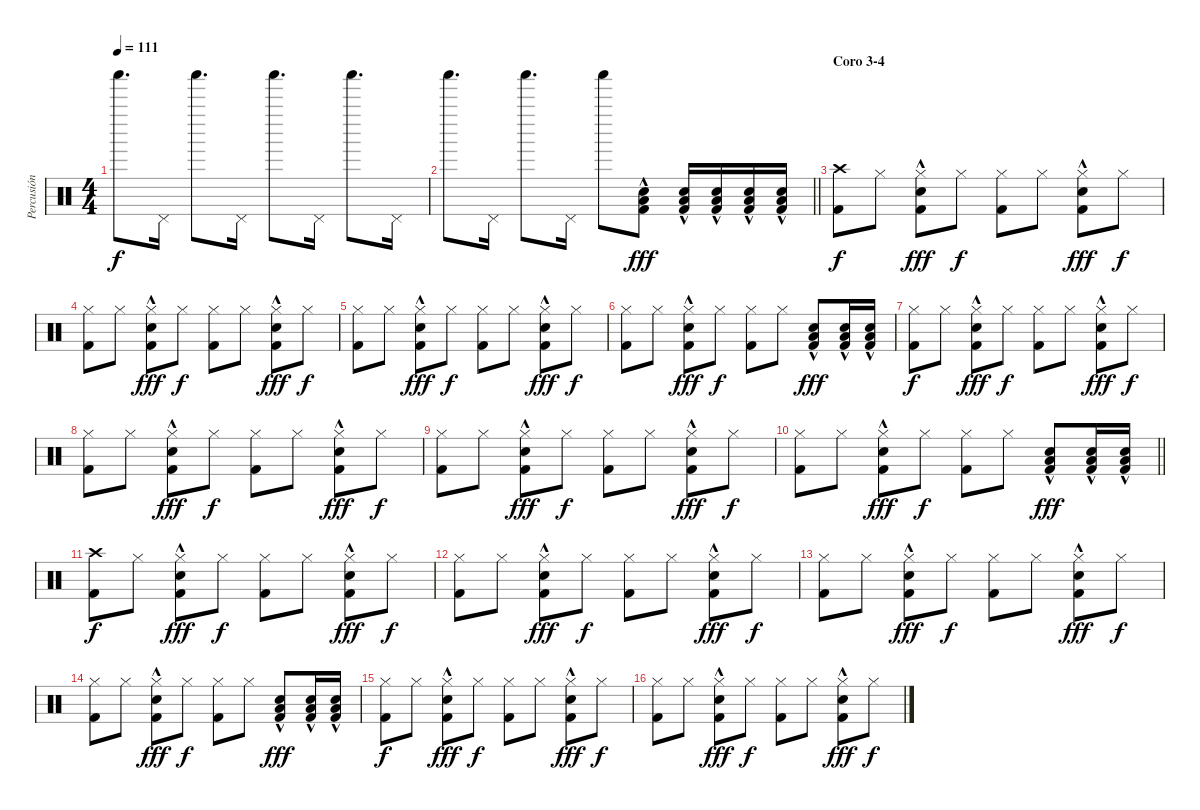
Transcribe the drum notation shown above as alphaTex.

\track ("Percusión" "Percusión") {instrument percussion}
\staff {score}
\articulation defaults
\ts (4 4)
\tempo 111
\clef neutral
\ks c "Shaker (hit)".8{d dy f} "Pedal Hi-Hat (hit)".16 "Shaker (hit)".8{d} "Pedal Hi-Hat (hit)".16 "Shaker (hit)".8{d} "Pedal Hi-Hat (hit)".16 "Shaker (hit)".8{d} "Pedal Hi-Hat (hit)".16
|
\barLineRight lightlight "Shaker (hit)".8{d} "Pedal Hi-Hat (hit)".16 "Shaker (hit)".8{d} "Pedal Hi-Hat (hit)".16 "Shaker (hit)".8
("Snare (hit) 2"{hac} "Low Floor Tom (hit)"{hac} "Kick (hit) 2"{hac}).8{dy fff} ("Snare (hit) 2"{hac} "Low Floor Tom (hit)"{hac} "Kick (hit) 2"{hac}).16 ("Snare (hit) 2"{hac} "Low Floor Tom (hit)"{hac} "Kick (hit) 2"{hac}).16 ("Snare (hit) 2"{hac} "Low Floor Tom (hit)"{hac} "Kick (hit) 2"{hac}).16 ("Snare (hit) 2"{hac} "Low Floor Tom (hit)"{hac} "Kick (hit) 2"{hac}).16 |
\section ("" "Coro 3-4")
("Crash high (hit)" "Kick (hit) 2").8{dy f} "Hi-Hat (closed)".8 ("Electric Snare (hit)"{hac} "Hi-Hat (closed)"{hac} "Kick (hit) 2"{hac}).8{dy fff} "Hi-Hat (closed)".8{dy f} ("Hi-Hat (closed)" "Kick (hit) 2").8 "Hi-Hat (closed)".8 ("Electric Snare (hit)"{hac} "Hi-Hat (closed)"{hac} "Kick (hit) 2"{hac}).8{dy fff} "Hi-Hat (closed)".8{dy f} |
("Hi-Hat (closed)" "Kick (hit) 2").8 "Hi-Hat (closed)".8 ("Electric Snare (hit)"{hac} "Hi-Hat (closed)"{hac} "Kick (hit) 2"{hac}).8{dy fff} "Hi-Hat (closed)".8{dy f} ("Hi-Hat (closed)" "Kick (hit) 2").8 "Hi-Hat (closed)".8 ("Electric Snare (hit)"{hac} "Hi-Hat (closed)"{hac} "Kick (hit) 2"{hac}).8{dy fff} "Hi-Hat (closed)".8{dy f} |
("Hi-Hat (closed)" "Kick (hit) 2").8 "Hi-Hat (closed)".8 ("Electric Snare (hit)"{hac} "Hi-Hat (closed)"{hac} "Kick (hit) 2"{hac}).8{dy fff} "Hi-Hat (closed)".8{dy f} ("Hi-Hat (closed)" "Kick (hit) 2").8 "Hi-Hat (closed)".8 ("Electric Snare (hit)"{hac} "Hi-Hat (closed)"{hac} "Kick (hit) 2"{hac}).8{dy fff} "Hi-Hat (closed)".8{dy f} |
("Hi-Hat (closed)" "Kick (hit) 2").8 "Hi-Hat (closed)".8 ("Electric Snare (hit)"{hac} "Hi-Hat (closed)"{hac} "Kick (hit) 2"{hac}).8{dy fff} "Hi-Hat (closed)".8{dy f} ("Hi-Hat (closed)" "Kick (hit) 2").8 "Hi-Hat (closed)".8 ("Snare (hit) 2"{hac} "Low Floor Tom (hit)"{hac} "Kick (hit) 2"{hac}).8{dy fff} ("Snare (hit) 2"{hac} "Low Floor Tom (hit)"{hac} "Kick (hit) 2"{hac}).16 ("Snare (hit) 2"{hac} "Low Floor Tom (hit)"{hac} "Kick (hit) 2"{hac}).16 |
("Hi-Hat (closed)" "Kick (hit) 2").8{dy f} "Hi-Hat (closed)".8 ("Electric Snare (hit)"{hac} "Hi-Hat (closed)"{hac} "Kick (hit) 2"{hac}).8{dy fff} "Hi-Hat (closed)".8{dy f} ("Hi-Hat (closed)" "Kick (hit) 2").8 "Hi-Hat (closed)".8 ("Electric Snare (hit)"{hac} "Hi-Hat (closed)"{hac} "Kick (hit) 2"{hac}).8{dy fff} "Hi-Hat (closed)".8{dy f} |
("Hi-Hat (closed)" "Kick (hit) 2").8 "Hi-Hat (closed)".8 ("Electric Snare (hit)"{hac} "Hi-Hat (closed)"{hac} "Kick (hit) 2"{hac}).8{dy fff} "Hi-Hat (closed)".8{dy f} ("Hi-Hat (closed)" "Kick (hit) 2").8 "Hi-Hat (closed)".8 ("Electric Snare (hit)"{hac} "Hi-Hat (closed)"{hac} "Kick (hit) 2"{hac}).8{dy fff} "Hi-Hat (closed)".8{dy f} |
("Hi-Hat (closed)" "Kick (hit) 2").8 "Hi-Hat (closed)".8 ("Electric Snare (hit)"{hac} "Hi-Hat (closed)"{hac} "Kick (hit) 2"{hac}).8{dy fff} "Hi-Hat (closed)".8{dy f} ("Hi-Hat (closed)" "Kick (hit) 2").8 "Hi-Hat (closed)".8 ("Electric Snare (hit)"{hac} "Hi-Hat (closed)"{hac} "Kick (hit) 2"{hac}).8{dy fff} "Hi-Hat (closed)".8{dy f} |
\barLineRight lightlight
("Hi-Hat (closed)" "Kick (hit) 2").8 "Hi-Hat (closed)".8 ("Electric Snare (hit)"{hac} "Hi-Hat (closed)"{hac} "Kick (hit) 2"{hac}).8{dy fff} "Hi-Hat (closed)".8{dy f} ("Hi-Hat (closed)" "Kick (hit) 2").8 "Hi-Hat (closed)".8 ("Snare (hit) 2"{hac} "Low Floor Tom (hit)"{hac} "Kick (hit) 2"{hac}).8{dy fff} ("Snare (hit) 2"{hac} "Low Floor Tom (hit)"{hac} "Kick (hit) 2"{hac}).16 ("Snare (hit) 2"{hac} "Low Floor Tom (hit)"{hac} "Kick (hit) 2"{hac}).16 |
("Crash high (hit)" "Kick (hit) 2").8{dy f} "Hi-Hat (closed)".8 ("Electric Snare (hit)"{hac} "Hi-Hat (closed)"{hac} "Kick (hit) 2"{hac}).8{dy fff} "Hi-Hat (closed)".8{dy f} ("Hi-Hat (closed)" "Kick (hit) 2").8 "Hi-Hat (closed)".8 ("Electric Snare (hit)"{hac} "Hi-Hat (closed)"{hac} "Kick (hit) 2"{hac}).8{dy fff} "Hi-Hat (closed)".8{dy f} |
("Hi-Hat (closed)" "Kick (hit) 2").8 "Hi-Hat (closed)".8 ("Electric Snare (hit)"{hac} "Hi-Hat (closed)"{hac} "Kick (hit) 2"{hac}).8{dy fff} "Hi-Hat (closed)".8{dy f} ("Hi-Hat (closed)" "Kick (hit) 2").8 "Hi-Hat (closed)".8 ("Electric Snare (hit)"{hac} "Hi-Hat (closed)"{hac} "Kick (hit) 2"{hac}).8{dy fff} "Hi-Hat (closed)".8{dy f} |
("Hi-Hat (closed)" "Kick (hit) 2").8 "Hi-Hat (closed)".8 ("Electric Snare (hit)"{hac} "Hi-Hat (closed)"{hac} "Kick (hit) 2"{hac}).8{dy fff} "Hi-Hat (closed)".8{dy f} ("Hi-Hat (closed)" "Kick (hit) 2").8 "Hi-Hat (closed)".8 ("Electric Snare (hit)"{hac} "Hi-Hat (closed)"{hac} "Kick (hit) 2"{hac}).8{dy fff} "Hi-Hat (closed)".8{dy f} |
("Hi-Hat (closed)" "Kick (hit) 2").8 "Hi-Hat (closed)".8 ("Electric Snare (hit)"{hac} "Hi-Hat (closed)"{hac} "Kick (hit) 2"{hac}).8{dy fff} "Hi-Hat (closed)".8{dy f} ("Hi-Hat (closed)" "Kick (hit) 2").8 "Hi-Hat (closed)".8 ("Snare (hit) 2"{hac} "Low Floor Tom (hit)"{hac} "Kick (hit) 2"{hac}).8{dy fff} ("Snare (hit) 2"{hac} "Low Floor Tom (hit)"{hac} "Kick (hit) 2"{hac}).16 ("Snare (hit) 2"{hac} "Low Floor Tom (hit)"{hac} "Kick (hit) 2"{hac}).16 |
("Hi-Hat (closed)" "Kick (hit) 2").8{dy f} "Hi-Hat (closed)".8 ("Electric Snare (hit)"{hac} "Hi-Hat (closed)"{hac} "Kick (hit) 2"{hac}).8{dy fff} "Hi-Hat (closed)".8{dy f} ("Hi-Hat (closed)" "Kick (hit) 2").8 "Hi-Hat (closed)".8 ("Electric Snare (hit)"{hac} "Hi-Hat (closed)"{hac} "Kick (hit) 2"{hac}).8{dy fff} "Hi-Hat (closed)".8{dy f} |
("Hi-Hat (closed)" "Kick (hit) 2").8 "Hi-Hat (closed)".8 ("Electric Snare (hit)"{hac} "Hi-Hat (closed)"{hac} "Kick (hit) 2"{hac}).8{dy fff} "Hi-Hat (closed)".8{dy f} ("Hi-Hat (closed)" "Kick (hit) 2").8 "Hi-Hat (closed)".8 ("Electric Snare (hit)"{hac} "Hi-Hat (closed)"{hac} "Kick (hit) 2"{hac}).8{dy fff} "Hi-Hat (closed)".8{dy f}
